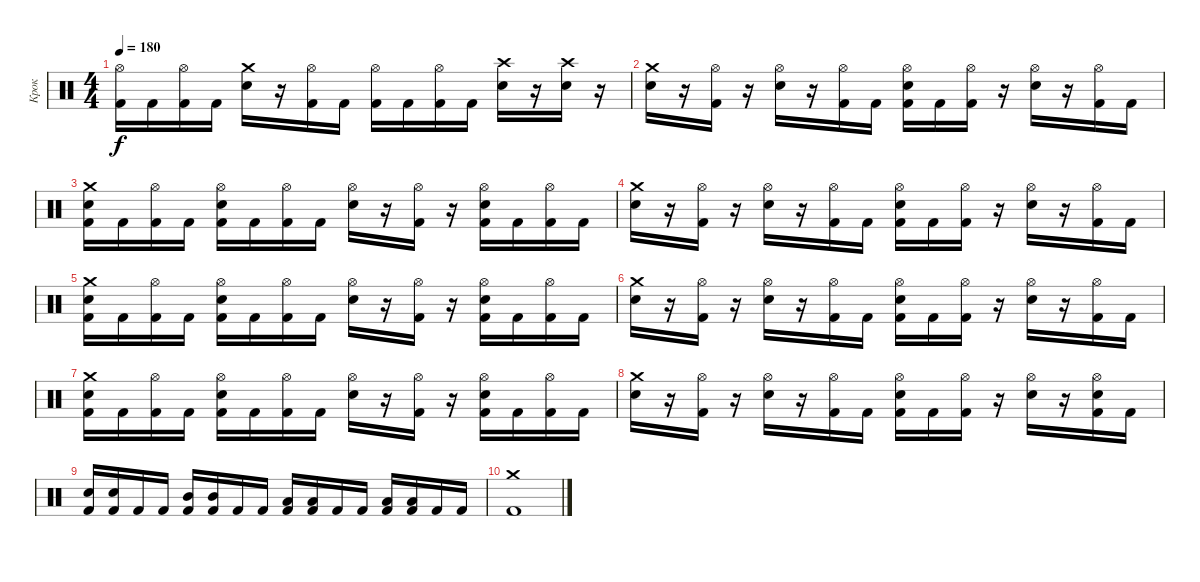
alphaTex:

\track ("Крок" "Крок") {instrument percussion}
\staff {score}
\articulation defaults
\ts (4 4)
\tempo 180
\clef neutral
\ks c
("Kick (hit) 2" "Hi-Hat (open)").16{dy f} "Kick (hit) 2".16 ("Kick (hit) 2" "Hi-Hat (open)").16 "Kick (hit) 2".16 ("Electric Snare (hit)" "Crash medium (hit)").16 r.16 ("Kick (hit) 2" "Hi-Hat (open)").16 "Kick (hit) 2".16 ("Kick (hit) 2" "Hi-Hat (open)").16 "Kick (hit) 2".16 ("Kick (hit) 2" "Hi-Hat (open)").16 "Kick (hit) 2".16 ("Electric Snare (hit)" "Crash high (hit)").16 r.16 ("Electric Snare (hit)" "Crash high (hit)").16 r.16 |
("Electric Snare (hit)" "Crash medium (hit)").16 r.16 ("Kick (hit) 2" "Hi-Hat (open)").16 r.16 ("Electric Snare (hit)" "Hi-Hat (open)").16 r.16 ("Kick (hit) 2" "Hi-Hat (open)").16 "Kick (hit) 2".16 ("Kick (hit) 2" "Electric Snare (hit)" "Hi-Hat (open)").16 "Kick (hit) 2".16 ("Kick (hit) 2" "Hi-Hat (open)").16 r.16 ("Electric Snare (hit)" "Hi-Hat (open)").16 r.16 ("Kick (hit) 2" "Hi-Hat (open)").16 "Kick (hit) 2".16 |
("Kick (hit) 2" "Electric Snare (hit)" "Crash medium (hit)").16 "Kick (hit) 2".16 ("Kick (hit) 2" "Hi-Hat (open)").16 "Kick (hit) 2".16 ("Kick (hit) 2" "Electric Snare (hit)" "Hi-Hat (open)").16 "Kick (hit) 2".16 ("Kick (hit) 2" "Hi-Hat (open)").16 "Kick (hit) 2".16 ("Electric Snare (hit)" "Hi-Hat (open)").16 r.16 ("Kick (hit) 2" "Hi-Hat (open)").16 r.16 ("Kick (hit) 2" "Electric Snare (hit)" "Hi-Hat (open)").16 "Kick (hit) 2".16 ("Kick (hit) 2" "Hi-Hat (open)").16 "Kick (hit) 2".16 |
("Electric Snare (hit)" "Crash medium (hit)").16 r.16 ("Kick (hit) 2" "Hi-Hat (open)").16 r.16 ("Electric Snare (hit)" "Hi-Hat (open)").16 r.16 ("Kick (hit) 2" "Hi-Hat (open)").16 "Kick (hit) 2".16 ("Kick (hit) 2" "Electric Snare (hit)" "Hi-Hat (open)").16 "Kick (hit) 2".16 ("Kick (hit) 2" "Hi-Hat (open)").16 r.16 ("Electric Snare (hit)" "Hi-Hat (open)").16 r.16 ("Kick (hit) 2" "Hi-Hat (open)").16 "Kick (hit) 2".16 |
("Kick (hit) 2" "Electric Snare (hit)" "Crash medium (hit)").16 "Kick (hit) 2".16 ("Kick (hit) 2" "Hi-Hat (open)").16 "Kick (hit) 2".16 ("Kick (hit) 2" "Electric Snare (hit)" "Hi-Hat (open)").16 "Kick (hit) 2".16 ("Kick (hit) 2" "Hi-Hat (open)").16 "Kick (hit) 2".16 ("Electric Snare (hit)" "Hi-Hat (open)").16 r.16 ("Kick (hit) 2" "Hi-Hat (open)").16 r.16 ("Kick (hit) 2" "Electric Snare (hit)" "Hi-Hat (open)").16 "Kick (hit) 2".16 ("Kick (hit) 2" "Hi-Hat (open)").16 "Kick (hit) 2".16 |
("Electric Snare (hit)" "Crash medium (hit)").16 r.16 ("Kick (hit) 2" "Hi-Hat (open)").16 r.16 ("Electric Snare (hit)" "Hi-Hat (open)").16 r.16 ("Kick (hit) 2" "Hi-Hat (open)").16 "Kick (hit) 2".16 ("Kick (hit) 2" "Electric Snare (hit)" "Hi-Hat (open)").16 "Kick (hit) 2".16 ("Kick (hit) 2" "Hi-Hat (open)").16 r.16 ("Electric Snare (hit)" "Hi-Hat (open)").16 r.16 ("Kick (hit) 2" "Hi-Hat (open)").16 "Kick (hit) 2".16 |
("Kick (hit) 2" "Electric Snare (hit)" "Crash medium (hit)").16 "Kick (hit) 2".16 ("Kick (hit) 2" "Hi-Hat (open)").16 "Kick (hit) 2".16 ("Kick (hit) 2" "Electric Snare (hit)" "Hi-Hat (open)").16 "Kick (hit) 2".16 ("Kick (hit) 2" "Hi-Hat (open)").16 "Kick (hit) 2".16 ("Electric Snare (hit)" "Hi-Hat (open)").16 r.16 ("Kick (hit) 2" "Hi-Hat (open)").16 r.16 ("Kick (hit) 2" "Electric Snare (hit)" "Hi-Hat (open)").16 "Kick (hit) 2".16 ("Kick (hit) 2" "Hi-Hat (open)").16 "Kick (hit) 2".16 |
("Electric Snare (hit)" "Crash medium (hit)").16 r.16 ("Kick (hit) 2" "Hi-Hat (open)").16 r.16 ("Electric Snare (hit)" "Hi-Hat (open)").16 r.16 ("Kick (hit) 2" "Hi-Hat (open)").16 "Kick (hit) 2".16 ("Kick (hit) 2" "Electric Snare (hit)" "Hi-Hat (open)").16 "Kick (hit) 2".16 ("Kick (hit) 2" "Hi-Hat (open)").16 r.16 ("Electric Snare (hit)" "Hi-Hat (open)").16 r.16 ("Kick (hit) 2" "Electric Snare (hit)" "Hi-Hat (open)").16 "Kick (hit) 2".16 |
("Kick (hit) 2" "Electric Snare (hit)").16 ("Kick (hit) 2" "Electric Snare (hit)").16 "Kick (hit) 2".16 "Kick (hit) 2".16 ("Kick (hit) 2" "Mid Tom (hit)").16 ("Kick (hit) 2" "Mid Tom (hit)").16 "Kick (hit) 2".16 "Kick (hit) 2".16 ("Kick (hit) 2" "Low Tom (hit)").16 ("Kick (hit) 2" "Low Tom (hit)").16 "Kick (hit) 2".16 "Kick (hit) 2".16 ("Kick (hit) 2" "Low Floor Tom (hit)").16 ("Kick (hit) 2" "Low Floor Tom (hit)").16 "Kick (hit) 2".16 "Kick (hit) 2".16 |
("Kick (hit) 2" "Crash medium (hit)").1
